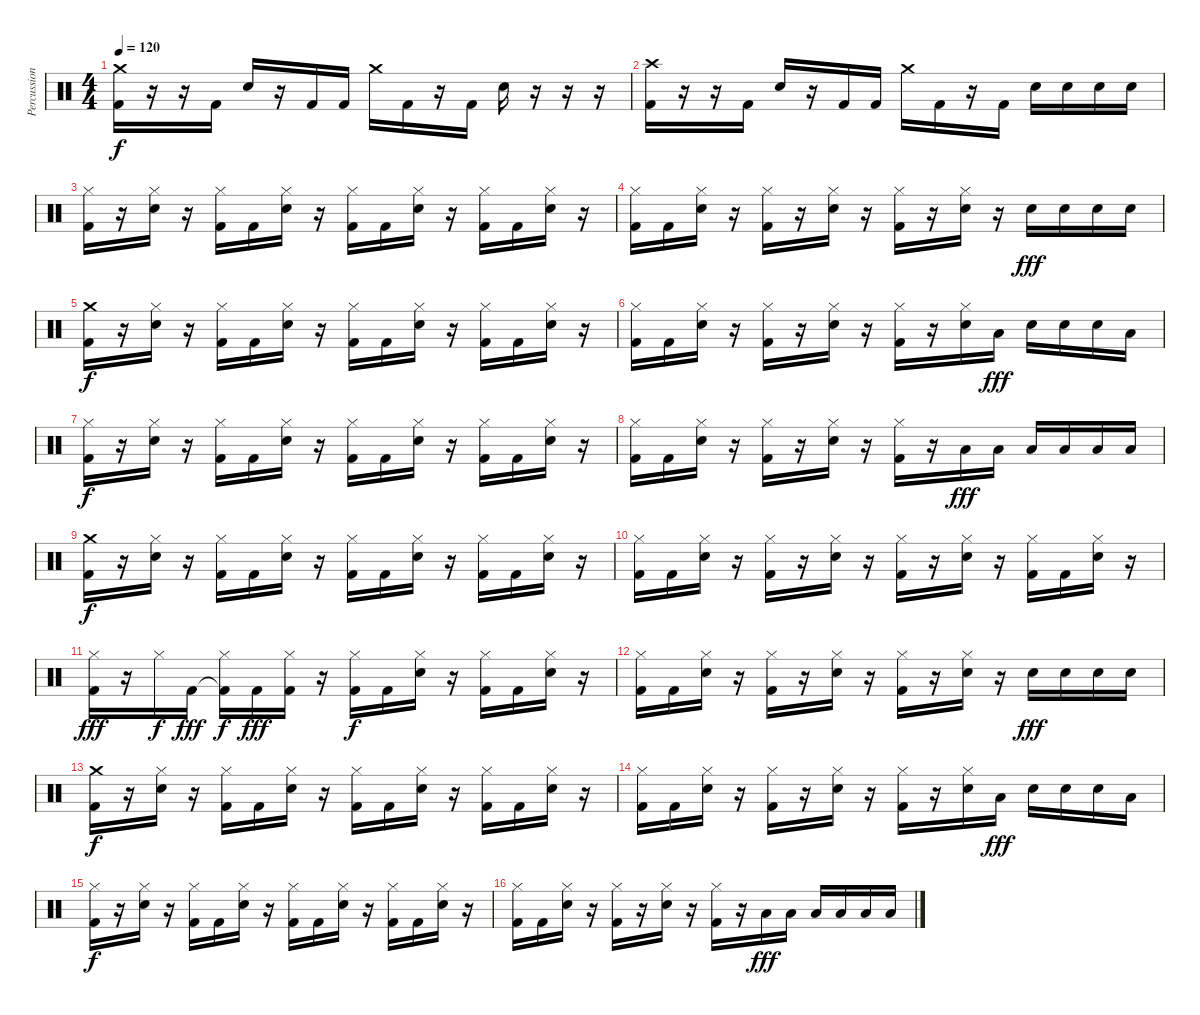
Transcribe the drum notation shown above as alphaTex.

\track ("Percussion" "Percussion") {instrument percussion}
\staff {score}
\articulation defaults
\ts (4 4)
\tempo 120
\clef neutral
\ks c
("Kick (hit) 2" "Crash medium (hit)").16{dy f} r.16 r.16 "Kick (hit) 2".16 "Snare (hit) 2".16 r.16 "Kick (hit) 2".16 "Kick (hit) 2".16 "Crash medium (hit)".16 "Kick (hit) 2".16 r.16 "Kick (hit) 2".16 "Snare (hit) 2".16 r.16 r.16 r.16 |
("Kick (hit) 2" "Crash high (hit)").16 r.16 r.16 "Kick (hit) 2".16 "Snare (hit) 2".16 r.16 "Kick (hit) 2".16 "Kick (hit) 2".16 "Crash medium (hit)".16 "Kick (hit) 2".16 r.16 "Kick (hit) 2".16 "Snare (hit) 2".16 "Snare (hit) 2".16 "Snare (hit) 2".16 "Snare (hit) 2".16 |
("Kick (hit) 2" "Hi-Hat (closed)").16 r.16 ("Snare (hit) 2" "Hi-Hat (closed)").16 r.16 ("Kick (hit) 2" "Hi-Hat (closed)").16 "Kick (hit) 2".16 ("Snare (hit) 2" "Hi-Hat (closed)").16 r.16 ("Kick (hit) 2" "Hi-Hat (closed)").16 "Kick (hit) 2".16 ("Snare (hit) 2" "Hi-Hat (closed)").16 r.16 ("Kick (hit) 2" "Hi-Hat (closed)").16 "Kick (hit) 2".16 ("Snare (hit) 2" "Hi-Hat (closed)").16 r.16 |
("Kick (hit) 2" "Hi-Hat (closed)").16 "Kick (hit) 2".16 ("Snare (hit) 2" "Hi-Hat (closed)").16 r.16 ("Kick (hit) 2" "Hi-Hat (closed)").16 r.16 ("Snare (hit) 2" "Hi-Hat (closed)").16 r.16 ("Kick (hit) 2" "Hi-Hat (closed)").16 r.16 ("Snare (hit) 2" "Hi-Hat (closed)").16 r.16 "Snare (hit) 2".16{dy fff} "Snare (hit) 2".16 "Snare (hit) 2".16 "Snare (hit) 2".16 |
("Kick (hit) 2" "Crash medium (hit)").16{dy f} r.16 ("Snare (hit) 2" "Hi-Hat (closed)").16 r.16 ("Kick (hit) 2" "Hi-Hat (closed)").16 "Kick (hit) 2".16 ("Snare (hit) 2" "Hi-Hat (closed)").16 r.16 ("Kick (hit) 2" "Hi-Hat (closed)").16 "Kick (hit) 2".16 ("Snare (hit) 2" "Hi-Hat (closed)").16 r.16 ("Kick (hit) 2" "Hi-Hat (closed)").16 "Kick (hit) 2".16 ("Snare (hit) 2" "Hi-Hat (closed)").16 r.16 |
("Kick (hit) 2" "Hi-Hat (closed)").16 "Kick (hit) 2".16 ("Snare (hit) 2" "Hi-Hat (closed)").16 r.16 ("Kick (hit) 2" "Hi-Hat (closed)").16 r.16 ("Snare (hit) 2" "Hi-Hat (closed)").16 r.16 ("Kick (hit) 2" "Hi-Hat (closed)").16 r.16 ("Snare (hit) 2" "Hi-Hat (closed)").16 "Low Tom (hit)".16{dy fff} "Snare (hit) 2".16 "Snare (hit) 2".16 "Snare (hit) 2".16 "Low Tom (hit)".16 |
("Kick (hit) 2" "Hi-Hat (closed)").16{dy f} r.16 ("Snare (hit) 2" "Hi-Hat (closed)").16 r.16 ("Kick (hit) 2" "Hi-Hat (closed)").16 "Kick (hit) 2".16 ("Snare (hit) 2" "Hi-Hat (closed)").16 r.16 ("Kick (hit) 2" "Hi-Hat (closed)").16 "Kick (hit) 2".16 ("Snare (hit) 2" "Hi-Hat (closed)").16 r.16 ("Kick (hit) 2" "Hi-Hat (closed)").16 "Kick (hit) 2".16 ("Snare (hit) 2" "Hi-Hat (closed)").16 r.16 |
("Kick (hit) 2" "Hi-Hat (closed)").16 "Kick (hit) 2".16 ("Snare (hit) 2" "Hi-Hat (closed)").16 r.16 ("Kick (hit) 2" "Hi-Hat (closed)").16 r.16 ("Snare (hit) 2" "Hi-Hat (closed)").16 r.16 ("Kick (hit) 2" "Hi-Hat (closed)").16 r.16 "Low Tom (hit)".16{dy fff} "Low Tom (hit)".16 "Low Floor Tom (hit)".16 "Low Floor Tom (hit)".16 "Low Floor Tom (hit)".16 "Low Floor Tom (hit)".16 |
("Kick (hit) 2" "Crash medium (hit)").16{dy f} r.16 ("Snare (hit) 2" "Hi-Hat (closed)").16 r.16 ("Kick (hit) 2" "Hi-Hat (closed)").16 "Kick (hit) 2".16 ("Snare (hit) 2" "Hi-Hat (closed)").16 r.16 ("Kick (hit) 2" "Hi-Hat (closed)").16 "Kick (hit) 2".16 ("Snare (hit) 2" "Hi-Hat (closed)").16 r.16 ("Kick (hit) 2" "Hi-Hat (closed)").16 "Kick (hit) 2".16 ("Snare (hit) 2" "Hi-Hat (closed)").16 r.16 |
("Kick (hit) 2" "Hi-Hat (closed)").16 "Kick (hit) 2".16 ("Snare (hit) 2" "Hi-Hat (closed)").16 r.16 ("Kick (hit) 2" "Hi-Hat (closed)").16 r.16 ("Snare (hit) 2" "Hi-Hat (closed)").16 r.16 ("Kick (hit) 2" "Hi-Hat (closed)").16 r.16 ("Snare (hit) 2" "Hi-Hat (closed)").16 r.16 ("Kick (hit) 2" "Hi-Hat (closed)").16 "Kick (hit) 2".16 ("Snare (hit) 2" "Hi-Hat (closed)").16 r.16 |
("Kick (hit) 2" "Hi-Hat (closed)").16{dy fff} r.16 "Hi-Hat (closed)".16{dy f} "Kick (hit) 2".16{dy fff} ("Kick (hit) 2"{t} "Hi-Hat (closed)").16{dy f} "Kick (hit) 2".16{dy fff} ("Kick (hit) 2" "Hi-Hat (closed)").16 r.16 ("Kick (hit) 2" "Hi-Hat (closed)").16{dy f} "Kick (hit) 2".16 ("Snare (hit) 2" "Hi-Hat (closed)").16 r.16 ("Kick (hit) 2" "Hi-Hat (closed)").16 "Kick (hit) 2".16 ("Snare (hit) 2" "Hi-Hat (closed)").16 r.16 |
("Kick (hit) 2" "Hi-Hat (closed)").16 "Kick (hit) 2".16 ("Snare (hit) 2" "Hi-Hat (closed)").16 r.16 ("Kick (hit) 2" "Hi-Hat (closed)").16 r.16 ("Snare (hit) 2" "Hi-Hat (closed)").16 r.16 ("Kick (hit) 2" "Hi-Hat (closed)").16 r.16 ("Snare (hit) 2" "Hi-Hat (closed)").16 r.16 "Snare (hit) 2".16{dy fff} "Snare (hit) 2".16 "Snare (hit) 2".16 "Snare (hit) 2".16 |
("Kick (hit) 2" "Crash medium (hit)").16{dy f} r.16 ("Snare (hit) 2" "Hi-Hat (closed)").16 r.16 ("Kick (hit) 2" "Hi-Hat (closed)").16 "Kick (hit) 2".16 ("Snare (hit) 2" "Hi-Hat (closed)").16 r.16 ("Kick (hit) 2" "Hi-Hat (closed)").16 "Kick (hit) 2".16 ("Snare (hit) 2" "Hi-Hat (closed)").16 r.16 ("Kick (hit) 2" "Hi-Hat (closed)").16 "Kick (hit) 2".16 ("Snare (hit) 2" "Hi-Hat (closed)").16 r.16 |
("Kick (hit) 2" "Hi-Hat (closed)").16 "Kick (hit) 2".16 ("Snare (hit) 2" "Hi-Hat (closed)").16 r.16 ("Kick (hit) 2" "Hi-Hat (closed)").16 r.16 ("Snare (hit) 2" "Hi-Hat (closed)").16 r.16 ("Kick (hit) 2" "Hi-Hat (closed)").16 r.16 ("Snare (hit) 2" "Hi-Hat (closed)").16 "Low Tom (hit)".16{dy fff} "Snare (hit) 2".16 "Snare (hit) 2".16 "Snare (hit) 2".16 "Low Tom (hit)".16 |
("Kick (hit) 2" "Hi-Hat (closed)").16{dy f} r.16 ("Snare (hit) 2" "Hi-Hat (closed)").16 r.16 ("Kick (hit) 2" "Hi-Hat (closed)").16 "Kick (hit) 2".16 ("Snare (hit) 2" "Hi-Hat (closed)").16 r.16 ("Kick (hit) 2" "Hi-Hat (closed)").16 "Kick (hit) 2".16 ("Snare (hit) 2" "Hi-Hat (closed)").16 r.16 ("Kick (hit) 2" "Hi-Hat (closed)").16 "Kick (hit) 2".16 ("Snare (hit) 2" "Hi-Hat (closed)").16 r.16 |
("Kick (hit) 2" "Hi-Hat (closed)").16 "Kick (hit) 2".16 ("Snare (hit) 2" "Hi-Hat (closed)").16 r.16 ("Kick (hit) 2" "Hi-Hat (closed)").16 r.16 ("Snare (hit) 2" "Hi-Hat (closed)").16 r.16 ("Kick (hit) 2" "Hi-Hat (closed)").16 r.16 "Low Tom (hit)".16{dy fff} "Low Tom (hit)".16 "Low Floor Tom (hit)".16 "Low Floor Tom (hit)".16 "Low Floor Tom (hit)".16 "Low Floor Tom (hit)".16
